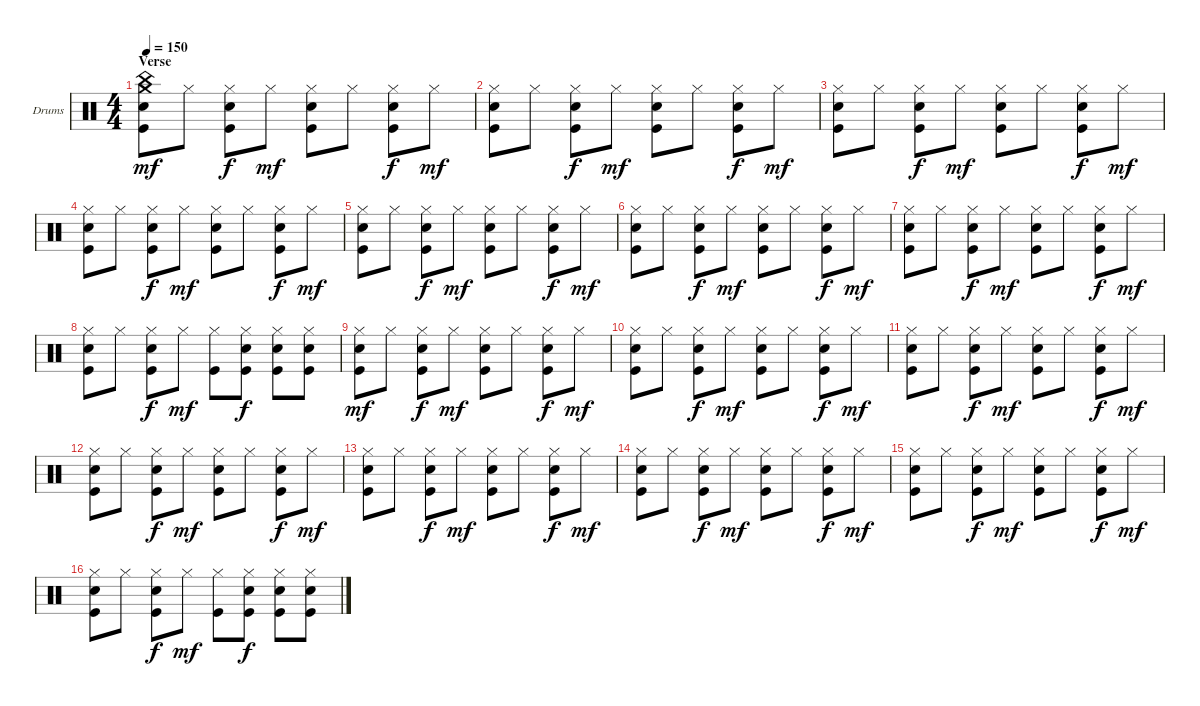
\defaultSystemsLayout 4
\bracketExtendMode groupsimilarinstruments
\firstSystemTrackNameOrientation horizontal
\otherSystemsTrackNameOrientation horizontal
\track ("Drumkit" "Drums") {instrument percussion}
\staff {score}
\articulation defaults
\ts (4 4)
\section ("" "Verse")
\tempo 150
\clef neutral
\ks c
("Snare (hit) 2" "Kick (hit)" "Crash medium (hit)" "China (hit)").8{dy mf} "Hi-Hat (closed)".8 ("Kick (hit)" "Snare (hit) 2" "Hi-Hat (closed)").8{dy f} "Hi-Hat (closed)".8{dy mf} ("Kick (hit)" "Snare (hit) 2" "Hi-Hat (closed)").8 "Hi-Hat (closed)".8 ("Kick (hit)" "Snare (hit) 2" "Hi-Hat (closed)").8{dy f} "Hi-Hat (closed)".8{dy mf} |
("Snare (hit) 2" "Kick (hit)" "Hi-Hat (closed)").8 "Hi-Hat (closed)".8 ("Kick (hit)" "Snare (hit) 2" "Hi-Hat (closed)").8{dy f} "Hi-Hat (closed)".8{dy mf} ("Kick (hit)" "Snare (hit) 2" "Hi-Hat (closed)").8 "Hi-Hat (closed)".8 ("Kick (hit)" "Snare (hit) 2" "Hi-Hat (closed)").8{dy f} "Hi-Hat (closed)".8{dy mf} |
("Snare (hit) 2" "Kick (hit)" "Hi-Hat (closed)").8 "Hi-Hat (closed)".8 ("Kick (hit)" "Snare (hit) 2" "Hi-Hat (closed)").8{dy f} "Hi-Hat (closed)".8{dy mf} ("Kick (hit)" "Snare (hit) 2" "Hi-Hat (closed)").8 "Hi-Hat (closed)".8 ("Kick (hit)" "Snare (hit) 2" "Hi-Hat (closed)").8{dy f} "Hi-Hat (closed)".8{dy mf} |
("Snare (hit) 2" "Kick (hit)" "Hi-Hat (closed)").8 "Hi-Hat (closed)".8 ("Kick (hit)" "Snare (hit) 2" "Hi-Hat (closed)").8{dy f} "Hi-Hat (closed)".8{dy mf} ("Kick (hit)" "Snare (hit) 2" "Hi-Hat (closed)").8 "Hi-Hat (closed)".8 ("Kick (hit)" "Snare (hit) 2" "Hi-Hat (closed)").8{dy f} "Hi-Hat (closed)".8{dy mf} |
("Snare (hit) 2" "Kick (hit)" "Hi-Hat (closed)").8 "Hi-Hat (closed)".8 ("Kick (hit)" "Snare (hit) 2" "Hi-Hat (closed)").8{dy f} "Hi-Hat (closed)".8{dy mf} ("Kick (hit)" "Snare (hit) 2" "Hi-Hat (closed)").8 "Hi-Hat (closed)".8 ("Kick (hit)" "Snare (hit) 2" "Hi-Hat (closed)").8{dy f} "Hi-Hat (closed)".8{dy mf} |
("Snare (hit) 2" "Kick (hit)" "Hi-Hat (closed)").8 "Hi-Hat (closed)".8 ("Kick (hit)" "Snare (hit) 2" "Hi-Hat (closed)").8{dy f} "Hi-Hat (closed)".8{dy mf} ("Kick (hit)" "Snare (hit) 2" "Hi-Hat (closed)").8 "Hi-Hat (closed)".8 ("Kick (hit)" "Snare (hit) 2" "Hi-Hat (closed)").8{dy f} "Hi-Hat (closed)".8{dy mf} |
("Snare (hit) 2" "Kick (hit)" "Hi-Hat (closed)").8 "Hi-Hat (closed)".8 ("Kick (hit)" "Snare (hit) 2" "Hi-Hat (closed)").8{dy f} "Hi-Hat (closed)".8{dy mf} ("Kick (hit)" "Snare (hit) 2" "Hi-Hat (closed)").8 "Hi-Hat (closed)".8 ("Kick (hit)" "Snare (hit) 2" "Hi-Hat (closed)").8{dy f} "Hi-Hat (closed)".8{dy mf} |
("Snare (hit) 2" "Kick (hit)" "Hi-Hat (closed)").8 "Hi-Hat (closed)".8 ("Kick (hit)" "Snare (hit) 2" "Hi-Hat (closed)").8{dy f} "Hi-Hat (closed)".8{dy mf} ("Kick (hit)" "Hi-Hat (closed)").8 ("Kick (hit)" "Snare (hit) 2" "Hi-Hat (closed)").8{dy f} ("Kick (hit)" "Snare (hit) 2" "Hi-Hat (closed)").8 ("Kick (hit)" "Snare (hit) 2" "Hi-Hat (closed)").8 |
("Snare (hit) 2" "Kick (hit)" "Hi-Hat (closed)").8{dy mf} "Hi-Hat (closed)".8 ("Kick (hit)" "Snare (hit) 2" "Hi-Hat (closed)").8{dy f} "Hi-Hat (closed)".8{dy mf} ("Kick (hit)" "Snare (hit) 2" "Hi-Hat (closed)").8 "Hi-Hat (closed)".8 ("Kick (hit)" "Snare (hit) 2" "Hi-Hat (closed)").8{dy f} "Hi-Hat (closed)".8{dy mf} |
("Snare (hit) 2" "Kick (hit)" "Hi-Hat (closed)").8 "Hi-Hat (closed)".8 ("Kick (hit)" "Snare (hit) 2" "Hi-Hat (closed)").8{dy f} "Hi-Hat (closed)".8{dy mf} ("Kick (hit)" "Snare (hit) 2" "Hi-Hat (closed)").8 "Hi-Hat (closed)".8 ("Kick (hit)" "Snare (hit) 2" "Hi-Hat (closed)").8{dy f} "Hi-Hat (closed)".8{dy mf} |
("Snare (hit) 2" "Kick (hit)" "Hi-Hat (closed)").8 "Hi-Hat (closed)".8 ("Kick (hit)" "Snare (hit) 2" "Hi-Hat (closed)").8{dy f} "Hi-Hat (closed)".8{dy mf} ("Kick (hit)" "Snare (hit) 2" "Hi-Hat (closed)").8 "Hi-Hat (closed)".8 ("Kick (hit)" "Snare (hit) 2" "Hi-Hat (closed)").8{dy f} "Hi-Hat (closed)".8{dy mf} |
("Snare (hit) 2" "Kick (hit)" "Hi-Hat (closed)").8 "Hi-Hat (closed)".8 ("Kick (hit)" "Snare (hit) 2" "Hi-Hat (closed)").8{dy f} "Hi-Hat (closed)".8{dy mf} ("Kick (hit)" "Snare (hit) 2" "Hi-Hat (closed)").8 "Hi-Hat (closed)".8 ("Kick (hit)" "Snare (hit) 2" "Hi-Hat (closed)").8{dy f} "Hi-Hat (closed)".8{dy mf} |
("Snare (hit) 2" "Kick (hit)" "Hi-Hat (closed)").8 "Hi-Hat (closed)".8 ("Kick (hit)" "Snare (hit) 2" "Hi-Hat (closed)").8{dy f} "Hi-Hat (closed)".8{dy mf} ("Kick (hit)" "Snare (hit) 2" "Hi-Hat (closed)").8 "Hi-Hat (closed)".8 ("Kick (hit)" "Snare (hit) 2" "Hi-Hat (closed)").8{dy f} "Hi-Hat (closed)".8{dy mf} |
("Snare (hit) 2" "Kick (hit)" "Hi-Hat (closed)").8 "Hi-Hat (closed)".8 ("Kick (hit)" "Snare (hit) 2" "Hi-Hat (closed)").8{dy f} "Hi-Hat (closed)".8{dy mf} ("Kick (hit)" "Snare (hit) 2" "Hi-Hat (closed)").8 "Hi-Hat (closed)".8 ("Kick (hit)" "Snare (hit) 2" "Hi-Hat (closed)").8{dy f} "Hi-Hat (closed)".8{dy mf} |
("Snare (hit) 2" "Kick (hit)" "Hi-Hat (closed)").8 "Hi-Hat (closed)".8 ("Kick (hit)" "Snare (hit) 2" "Hi-Hat (closed)").8{dy f} "Hi-Hat (closed)".8{dy mf} ("Kick (hit)" "Snare (hit) 2" "Hi-Hat (closed)").8 "Hi-Hat (closed)".8 ("Kick (hit)" "Snare (hit) 2" "Hi-Hat (closed)").8{dy f} "Hi-Hat (closed)".8{dy mf} |
("Snare (hit) 2" "Kick (hit)" "Hi-Hat (closed)").8 "Hi-Hat (closed)".8 ("Kick (hit)" "Snare (hit) 2" "Hi-Hat (closed)").8{dy f} "Hi-Hat (closed)".8{dy mf} ("Kick (hit)" "Hi-Hat (closed)").8 ("Kick (hit)" "Snare (hit) 2" "Hi-Hat (closed)").8{dy f} ("Kick (hit)" "Snare (hit) 2" "Hi-Hat (closed)").8 ("Kick (hit)" "Snare (hit) 2" "Hi-Hat (closed)").8
